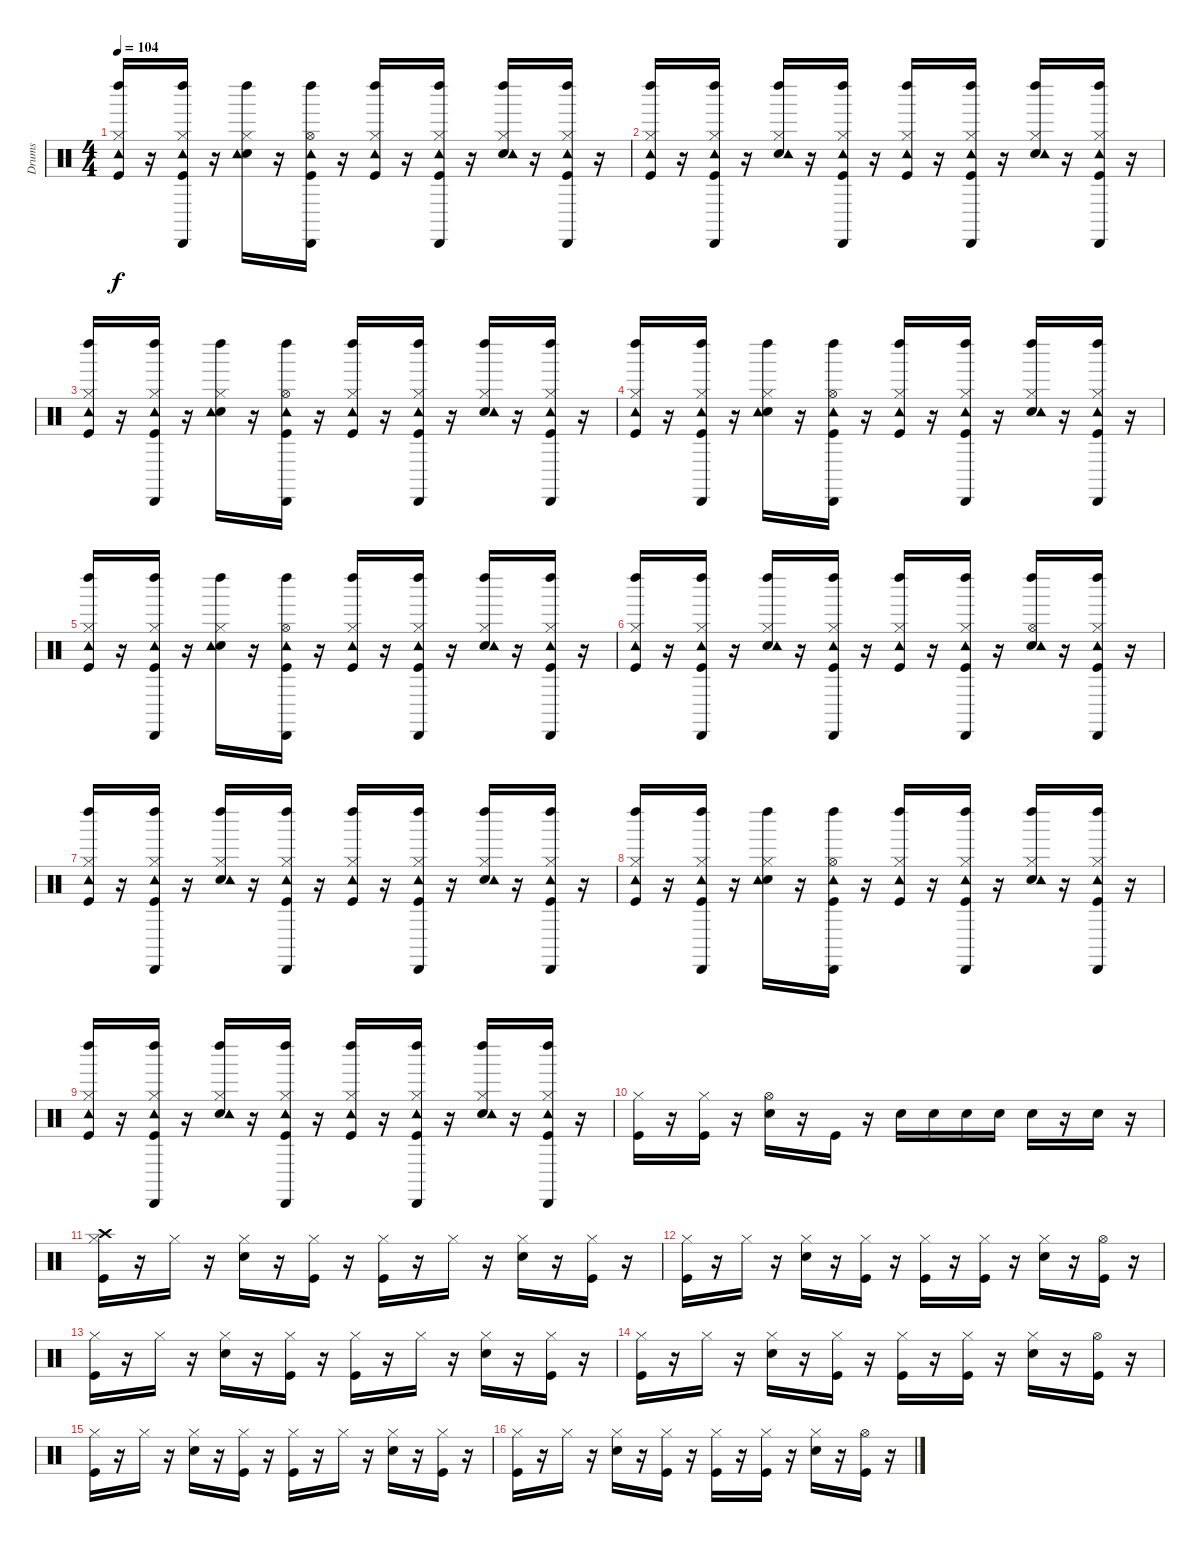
\track ("Drums" "Drums") {instrument percussion}
\staff {score}
\articulation defaults
\ts (4 4)
\tempo 104
\clef neutral
\ks c
("Kick (hit)" "Hi-Hat (closed)" "Tambourine (hit)" "Left Maraca (hit)").16{dy f} r.16 ("Kick (hit)" "Hi-Hat (closed)" "Tambourine (hit)" "Left Maraca (hit)" "Cabasa (hit)").16 r.16 ("Snare (hit) 2" "Hi-Hat (closed)" "Tambourine (hit)" "Left Maraca (hit)").16 r.16 ("Kick (hit)" "Hi-Hat (open)" "Tambourine (hit)" "Left Maraca (hit)" "Cabasa (hit)").16 r.16 ("Kick (hit)" "Hi-Hat (closed)" "Tambourine (hit)" "Left Maraca (hit)").16 r.16 ("Kick (hit)" "Hi-Hat (closed)" "Tambourine (hit)" "Left Maraca (hit)" "Cabasa (hit)").16 r.16 ("Snare (hit) 2" "Hi-Hat (closed)" "Tambourine (hit)" "Left Maraca (hit)").16 r.16 ("Kick (hit)" "Hi-Hat (closed)" "Tambourine (hit)" "Left Maraca (hit)" "Cabasa (hit)").16 r.16 |
("Kick (hit)" "Hi-Hat (closed)" "Tambourine (hit)" "Left Maraca (hit)").16 r.16 ("Kick (hit)" "Hi-Hat (closed)" "Tambourine (hit)" "Left Maraca (hit)" "Cabasa (hit)").16 r.16 ("Snare (hit) 2" "Hi-Hat (closed)" "Tambourine (hit)" "Left Maraca (hit)").16 r.16 ("Kick (hit)" "Hi-Hat (closed)" "Tambourine (hit)" "Left Maraca (hit)" "Cabasa (hit)").16 r.16 ("Kick (hit)" "Hi-Hat (closed)" "Tambourine (hit)" "Left Maraca (hit)").16 r.16 ("Kick (hit)" "Hi-Hat (closed)" "Tambourine (hit)" "Left Maraca (hit)" "Cabasa (hit)").16 r.16 ("Snare (hit) 2" "Hi-Hat (closed)" "Tambourine (hit)" "Left Maraca (hit)").16 r.16 ("Kick (hit)" "Hi-Hat (closed)" "Tambourine (hit)" "Left Maraca (hit)" "Cabasa (hit)").16 r.16 |
("Kick (hit)" "Hi-Hat (closed)" "Tambourine (hit)" "Left Maraca (hit)").16 r.16 ("Kick (hit)" "Hi-Hat (closed)" "Tambourine (hit)" "Left Maraca (hit)" "Cabasa (hit)").16 r.16 ("Snare (hit) 2" "Hi-Hat (closed)" "Tambourine (hit)" "Left Maraca (hit)").16 r.16 ("Kick (hit)" "Hi-Hat (open)" "Tambourine (hit)" "Left Maraca (hit)" "Cabasa (hit)").16 r.16 ("Kick (hit)" "Hi-Hat (closed)" "Tambourine (hit)" "Left Maraca (hit)").16 r.16 ("Kick (hit)" "Hi-Hat (closed)" "Tambourine (hit)" "Left Maraca (hit)" "Cabasa (hit)").16 r.16 ("Snare (hit) 2" "Hi-Hat (closed)" "Tambourine (hit)" "Left Maraca (hit)").16 r.16 ("Kick (hit)" "Hi-Hat (closed)" "Tambourine (hit)" "Left Maraca (hit)" "Cabasa (hit)").16 r.16 |
("Kick (hit)" "Hi-Hat (closed)" "Tambourine (hit)" "Left Maraca (hit)").16 r.16 ("Kick (hit)" "Hi-Hat (closed)" "Tambourine (hit)" "Left Maraca (hit)" "Cabasa (hit)").16 r.16 ("Snare (hit) 2" "Hi-Hat (closed)" "Tambourine (hit)" "Left Maraca (hit)").16 r.16 ("Kick (hit)" "Hi-Hat (open)" "Tambourine (hit)" "Left Maraca (hit)" "Cabasa (hit)").16 r.16 ("Kick (hit)" "Hi-Hat (closed)" "Tambourine (hit)" "Left Maraca (hit)").16 r.16 ("Kick (hit)" "Hi-Hat (closed)" "Tambourine (hit)" "Left Maraca (hit)" "Cabasa (hit)").16 r.16 ("Snare (hit) 2" "Hi-Hat (closed)" "Tambourine (hit)" "Left Maraca (hit)").16 r.16 ("Kick (hit)" "Hi-Hat (closed)" "Tambourine (hit)" "Left Maraca (hit)" "Cabasa (hit)").16 r.16 |
("Kick (hit)" "Hi-Hat (closed)" "Tambourine (hit)" "Left Maraca (hit)").16 r.16 ("Kick (hit)" "Hi-Hat (closed)" "Tambourine (hit)" "Left Maraca (hit)" "Cabasa (hit)").16 r.16 ("Snare (hit) 2" "Hi-Hat (closed)" "Tambourine (hit)" "Left Maraca (hit)").16 r.16 ("Kick (hit)" "Hi-Hat (open)" "Tambourine (hit)" "Left Maraca (hit)" "Cabasa (hit)").16 r.16 ("Kick (hit)" "Hi-Hat (closed)" "Tambourine (hit)" "Left Maraca (hit)").16 r.16 ("Kick (hit)" "Hi-Hat (closed)" "Tambourine (hit)" "Left Maraca (hit)" "Cabasa (hit)").16 r.16 ("Snare (hit) 2" "Hi-Hat (closed)" "Tambourine (hit)" "Left Maraca (hit)").16 r.16 ("Kick (hit)" "Hi-Hat (closed)" "Tambourine (hit)" "Left Maraca (hit)" "Cabasa (hit)").16 r.16 |
("Kick (hit)" "Hi-Hat (closed)" "Tambourine (hit)" "Left Maraca (hit)").16 r.16 ("Kick (hit)" "Hi-Hat (closed)" "Tambourine (hit)" "Left Maraca (hit)" "Cabasa (hit)").16 r.16 ("Snare (hit) 2" "Hi-Hat (closed)" "Tambourine (hit)" "Left Maraca (hit)").16 r.16 ("Kick (hit)" "Hi-Hat (closed)" "Tambourine (hit)" "Left Maraca (hit)" "Cabasa (hit)").16 r.16 ("Kick (hit)" "Hi-Hat (closed)" "Tambourine (hit)" "Left Maraca (hit)").16 r.16 ("Kick (hit)" "Hi-Hat (closed)" "Tambourine (hit)" "Left Maraca (hit)" "Cabasa (hit)").16 r.16 ("Snare (hit) 2" "Hi-Hat (open)" "Tambourine (hit)" "Left Maraca (hit)").16 r.16 ("Kick (hit)" "Hi-Hat (closed)" "Tambourine (hit)" "Left Maraca (hit)" "Cabasa (hit)").16 r.16 |
("Kick (hit)" "Hi-Hat (closed)" "Tambourine (hit)" "Left Maraca (hit)").16 r.16 ("Kick (hit)" "Hi-Hat (closed)" "Tambourine (hit)" "Left Maraca (hit)" "Cabasa (hit)").16 r.16 ("Snare (hit) 2" "Hi-Hat (closed)" "Tambourine (hit)" "Left Maraca (hit)").16 r.16 ("Kick (hit)" "Hi-Hat (closed)" "Tambourine (hit)" "Left Maraca (hit)" "Cabasa (hit)").16 r.16 ("Kick (hit)" "Hi-Hat (closed)" "Tambourine (hit)" "Left Maraca (hit)").16 r.16 ("Kick (hit)" "Hi-Hat (closed)" "Tambourine (hit)" "Left Maraca (hit)" "Cabasa (hit)").16 r.16 ("Snare (hit) 2" "Hi-Hat (closed)" "Tambourine (hit)" "Left Maraca (hit)").16 r.16 ("Kick (hit)" "Hi-Hat (closed)" "Tambourine (hit)" "Left Maraca (hit)" "Cabasa (hit)").16 r.16 |
("Kick (hit)" "Hi-Hat (closed)" "Tambourine (hit)" "Left Maraca (hit)").16 r.16 ("Kick (hit)" "Hi-Hat (closed)" "Tambourine (hit)" "Left Maraca (hit)" "Cabasa (hit)").16 r.16 ("Snare (hit) 2" "Hi-Hat (closed)" "Tambourine (hit)" "Left Maraca (hit)").16 r.16 ("Kick (hit)" "Hi-Hat (open)" "Tambourine (hit)" "Left Maraca (hit)" "Cabasa (hit)").16 r.16 ("Kick (hit)" "Hi-Hat (closed)" "Tambourine (hit)" "Left Maraca (hit)").16 r.16 ("Kick (hit)" "Hi-Hat (closed)" "Tambourine (hit)" "Left Maraca (hit)" "Cabasa (hit)").16 r.16 ("Snare (hit) 2" "Hi-Hat (closed)" "Tambourine (hit)" "Left Maraca (hit)").16 r.16 ("Kick (hit)" "Hi-Hat (closed)" "Tambourine (hit)" "Left Maraca (hit)" "Cabasa (hit)").16 r.16 |
("Kick (hit)" "Hi-Hat (closed)" "Tambourine (hit)" "Left Maraca (hit)").16 r.16 ("Kick (hit)" "Hi-Hat (closed)" "Tambourine (hit)" "Left Maraca (hit)" "Cabasa (hit)").16 r.16 ("Snare (hit) 2" "Hi-Hat (closed)" "Tambourine (hit)" "Left Maraca (hit)").16 r.16 ("Kick (hit)" "Hi-Hat (closed)" "Tambourine (hit)" "Left Maraca (hit)" "Cabasa (hit)").16 r.16 ("Kick (hit)" "Hi-Hat (closed)" "Tambourine (hit)" "Left Maraca (hit)").16 r.16 ("Kick (hit)" "Hi-Hat (closed)" "Tambourine (hit)" "Left Maraca (hit)" "Cabasa (hit)").16 r.16 ("Snare (hit) 2" "Hi-Hat (closed)" "Tambourine (hit)" "Left Maraca (hit)").16 r.16 ("Kick (hit)" "Hi-Hat (closed)" "Tambourine (hit)" "Left Maraca (hit)" "Cabasa (hit)").16 r.16 |
("Kick (hit)" "Hi-Hat (closed)").16 r.16 ("Kick (hit)" "Hi-Hat (closed)").16 r.16 ("Snare (hit) 2" "Hi-Hat (open)").16 r.16 "Kick (hit)".16 r.16 "Snare (hit) 2".16 "Snare (hit) 2".16 "Snare (hit) 2".16 "Snare (hit) 2".16 "Snare (hit) 2".16 r.16 "Snare (hit) 2".16 r.16 |
("Kick (hit)" "Hi-Hat (closed)" "Crash high (hit)").16 r.16 "Hi-Hat (closed)".16 r.16 ("Snare (hit) 2" "Hi-Hat (closed)").16 r.16 ("Kick (hit)" "Hi-Hat (closed)").16 r.16 ("Kick (hit)" "Hi-Hat (closed)").16 r.16 "Hi-Hat (closed)".16 r.16 ("Snare (hit) 2" "Hi-Hat (closed)").16 r.16 ("Kick (hit)" "Hi-Hat (closed)").16 r.16 |
("Kick (hit)" "Hi-Hat (closed)").16 r.16 "Hi-Hat (closed)".16 r.16 ("Snare (hit) 2" "Hi-Hat (closed)").16 r.16 ("Kick (hit)" "Hi-Hat (closed)").16 r.16 ("Kick (hit)" "Hi-Hat (closed)").16 r.16 ("Kick (hit)" "Hi-Hat (closed)").16 r.16 ("Snare (hit) 2" "Hi-Hat (closed)").16 r.16 ("Kick (hit)" "Hi-Hat (open)").16 r.16 |
("Kick (hit)" "Hi-Hat (closed)").16 r.16 "Hi-Hat (closed)".16 r.16 ("Snare (hit) 2" "Hi-Hat (closed)").16 r.16 ("Kick (hit)" "Hi-Hat (closed)").16 r.16 ("Kick (hit)" "Hi-Hat (closed)").16 r.16 "Hi-Hat (closed)".16 r.16 ("Snare (hit) 2" "Hi-Hat (closed)").16 r.16 ("Kick (hit)" "Hi-Hat (closed)").16 r.16 |
("Kick (hit)" "Hi-Hat (closed)").16 r.16 "Hi-Hat (closed)".16 r.16 ("Snare (hit) 2" "Hi-Hat (closed)").16 r.16 ("Kick (hit)" "Hi-Hat (closed)").16 r.16 ("Kick (hit)" "Hi-Hat (closed)").16 r.16 ("Kick (hit)" "Hi-Hat (closed)").16 r.16 ("Snare (hit) 2" "Hi-Hat (closed)").16 r.16 ("Kick (hit)" "Hi-Hat (open)").16 r.16 |
("Kick (hit)" "Hi-Hat (closed)").16 r.16 "Hi-Hat (closed)".16 r.16 ("Snare (hit) 2" "Hi-Hat (closed)").16 r.16 ("Kick (hit)" "Hi-Hat (closed)").16 r.16 ("Kick (hit)" "Hi-Hat (closed)").16 r.16 "Hi-Hat (closed)".16 r.16 ("Snare (hit) 2" "Hi-Hat (closed)").16 r.16 ("Kick (hit)" "Hi-Hat (closed)").16 r.16 |
("Kick (hit)" "Hi-Hat (closed)").16 r.16 "Hi-Hat (closed)".16 r.16 ("Snare (hit) 2" "Hi-Hat (closed)").16 r.16 ("Kick (hit)" "Hi-Hat (closed)").16 r.16 ("Kick (hit)" "Hi-Hat (closed)").16 r.16 ("Kick (hit)" "Hi-Hat (closed)").16 r.16 ("Snare (hit) 2" "Hi-Hat (closed)").16 r.16 ("Kick (hit)" "Hi-Hat (open)").16 r.16
